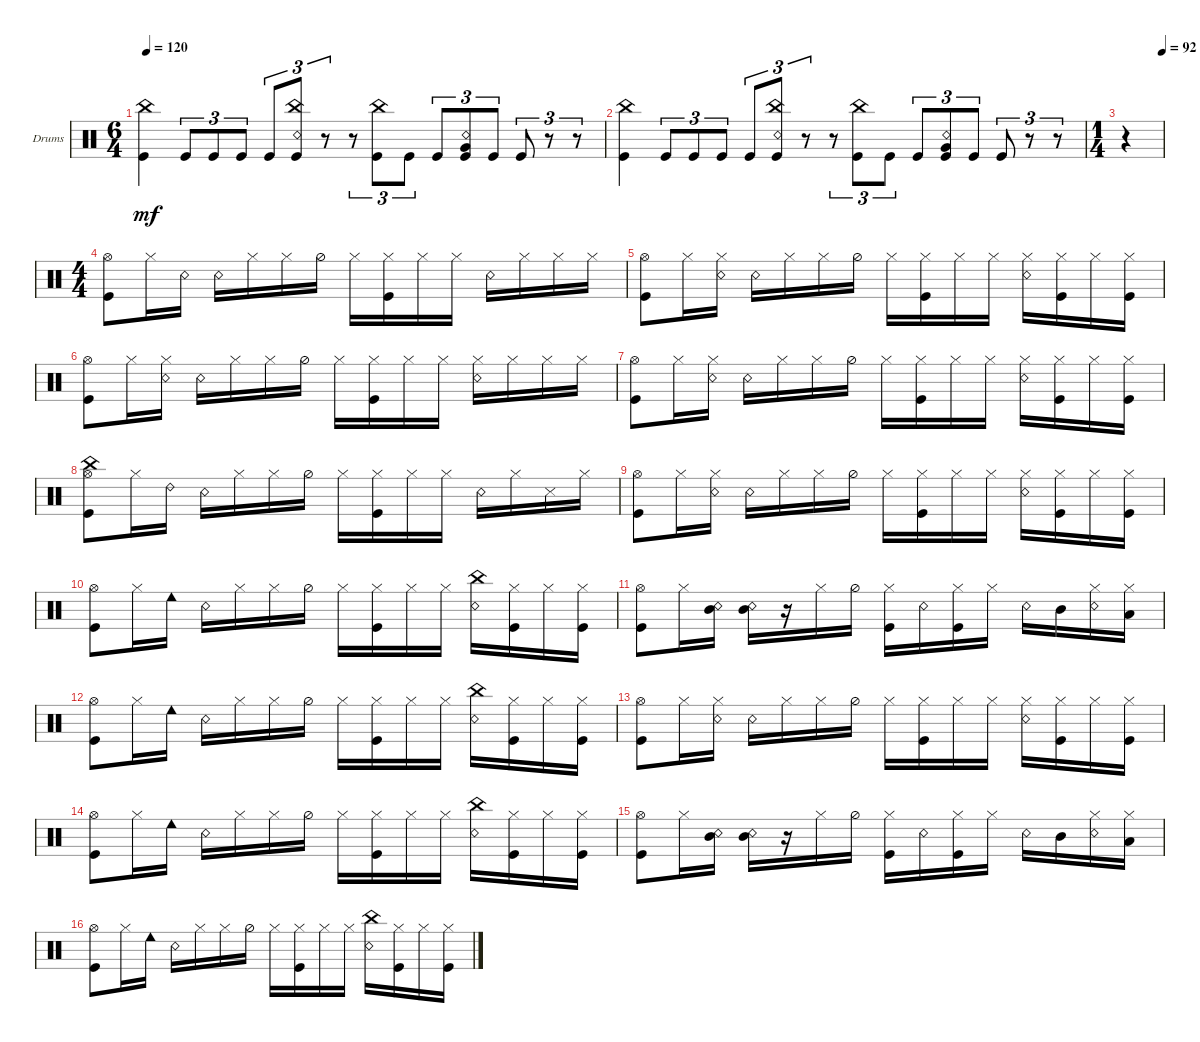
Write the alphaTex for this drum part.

\defaultSystemsLayout 4
\bracketExtendMode groupsimilarinstruments
\firstSystemTrackNameOrientation horizontal
\otherSystemsTrackNameOrientation horizontal
\track ("Drumkit" "Drums") {instrument percussion}
\staff {score}
\articulation defaults
\ts (6 4)
\tempo 120
\clef neutral
\ks c
("Kick (hit)" "China (hit)").4{dy mf} "Kick (hit)".8{tu (3 2)} "Kick (hit)".8{tu (3 2)} "Kick (hit)".8{tu (3 2)} "Kick (hit)".8{tu (3 2)} ("Kick (hit)" "Snare (rim shot)" "China (hit)").8{tu (3 2)} r.8{tu (3 2)} r.8{tu (3 2)} ("Kick (hit)" "China (hit)").8{tu (3 2)} "Kick (hit)".8{tu (3 2)} "Kick (hit)".8{tu (3 2)} ("Kick (hit)" "Snare (rim shot)" "Very Low Tom (hit)").8{tu (3 2)} "Kick (hit)".8{tu (3 2)} "Kick (hit)".8{tu (3 2)} r.8{tu (3 2)} r.8{tu (3 2)} |
("Kick (hit)" "China (hit)").4 "Kick (hit)".8{tu (3 2)} "Kick (hit)".8{tu (3 2)} "Kick (hit)".8{tu (3 2)} "Kick (hit)".8{tu (3 2)} ("Kick (hit)" "Snare (rim shot)" "China (hit)").8{tu (3 2)} r.8{tu (3 2)} r.8{tu (3 2)} ("Kick (hit)" "China (hit)").8{tu (3 2)} "Kick (hit)".8{tu (3 2)} "Kick (hit)".8{tu (3 2)} ("Kick (hit)" "Snare (rim shot)" "Very Low Tom (hit)").8{tu (3 2)} "Kick (hit)".8{tu (3 2)} "Kick (hit)".8{tu (3 2)} r.8{tu (3 2)} r.8{tu (3 2)} |
\ts (1 4)
\tempo (92 1)
r.4 |
\ts (4 4)
("Hi-Hat (open)" "Kick (hit)").8 "Hi-Hat (closed)".16 "Snare (rim shot)".16 "Snare (rim shot)".16 "Hi-Hat (closed)".16 "Hi-Hat (closed)".16 "Hi-Hat (half)".16 "Hi-Hat (closed)".16 ("Hi-Hat (closed)" "Kick (hit)").16 "Hi-Hat (closed)".16 "Hi-Hat (closed)".16 "Snare (rim shot)".16 "Hi-Hat (closed)".16 "Hi-Hat (closed)".16 "Hi-Hat (closed)".16 |
("Hi-Hat (open)" "Kick (hit)").8 "Hi-Hat (closed)".16 ("Hi-Hat (closed)" "Snare (rim shot)").16 "Snare (rim shot)".16 "Hi-Hat (closed)".16 "Hi-Hat (closed)".16 "Hi-Hat (half)".16 "Hi-Hat (closed)".16 ("Hi-Hat (closed)" "Kick (hit)").16 "Hi-Hat (closed)".16 "Hi-Hat (closed)".16 ("Hi-Hat (closed)" "Snare (rim shot)").16 ("Hi-Hat (closed)" "Kick (hit)").16 "Hi-Hat (closed)".16 ("Hi-Hat (closed)" "Kick (hit)").16 |
("Hi-Hat (open)" "Kick (hit)").8 "Hi-Hat (closed)".16 ("Hi-Hat (closed)" "Snare (rim shot)").16 "Snare (rim shot)".16 "Hi-Hat (closed)".16 "Hi-Hat (closed)".16 "Hi-Hat (half)".16 "Hi-Hat (closed)".16 ("Hi-Hat (closed)" "Kick (hit)").16 "Hi-Hat (closed)".16 "Hi-Hat (closed)".16 ("Hi-Hat (closed)" "Snare (rim shot)").16 "Hi-Hat (closed)".16 "Hi-Hat (closed)".16 "Hi-Hat (closed)".16 |
("Hi-Hat (open)" "Kick (hit)").8 "Hi-Hat (closed)".16 ("Hi-Hat (closed)" "Snare (rim shot)").16 "Snare (rim shot)".16 "Hi-Hat (closed)".16 "Hi-Hat (closed)".16 "Hi-Hat (half)".16 "Hi-Hat (closed)".16 ("Hi-Hat (closed)" "Kick (hit)").16 "Hi-Hat (closed)".16 "Hi-Hat (closed)".16 ("Hi-Hat (closed)" "Snare (rim shot)").16 ("Hi-Hat (closed)" "Kick (hit)").16 "Hi-Hat (closed)".16 ("Hi-Hat (closed)" "Kick (hit)").16 |
("Hi-Hat (open)" "Kick (hit)" "China (hit)").8 "Hi-Hat (closed)".16 "Ride (bell) 2".16 "Snare (rim shot)".16 "Hi-Hat (closed)".16 "Hi-Hat (closed)".16 "Hi-Hat (half)".16 "Hi-Hat (closed)".16 ("Hi-Hat (closed)" "Kick (hit)").16 "Hi-Hat (closed)".16 "Hi-Hat (closed)".16 "Snare (rim shot)".16 "Hi-Hat (closed)".16 "Snare (side stick) 3".16 "Hi-Hat (closed)".16 |
("Hi-Hat (open)" "Kick (hit)").8 "Hi-Hat (closed)".16 ("Hi-Hat (closed)" "Snare (rim shot)").16 "Snare (rim shot)".16 "Hi-Hat (closed)".16 "Hi-Hat (closed)".16 "Hi-Hat (half)".16 "Hi-Hat (closed)".16 ("Hi-Hat (closed)" "Kick (hit)").16 "Hi-Hat (closed)".16 "Hi-Hat (closed)".16 ("Hi-Hat (closed)" "Snare (rim shot)").16 ("Hi-Hat (closed)" "Kick (hit)").16 "Hi-Hat (closed)".16 ("Hi-Hat (closed)" "Kick (hit)").16 |
("Hi-Hat (open)" "Kick (hit)").8 "Hi-Hat (closed)".16 "Cowbell low (hit)".16 "Snare (rim shot)".16 "Hi-Hat (closed)".16 "Hi-Hat (closed)".16 "Hi-Hat (half)".16 "Hi-Hat (closed)".16 ("Hi-Hat (closed)" "Kick (hit)").16 "Hi-Hat (closed)".16 "Hi-Hat (closed)".16 ("Snare (rim shot)" "China (hit)").16 ("Hi-Hat (closed)" "Kick (hit)").16 "Hi-Hat (closed)".16 ("Hi-Hat (closed)" "Kick (hit)").16 |
("Hi-Hat (open)" "Kick (hit)").8 "Hi-Hat (closed)".16 ("Snare (rim shot)" "Mid Tom (hit)").16 ("Snare (rim shot)" "Mid Tom (hit)").16 r.16 "Hi-Hat (closed)".16 "Hi-Hat (half)".16 ("Hi-Hat (closed)" "Kick (hit)").16 "Snare (rim shot)".16 ("Hi-Hat (closed)" "Kick (hit)").16 "Hi-Hat (closed)".16 "Snare (rim shot)".16 "Mid Tom (hit)".16 ("Hi-Hat (closed)" "Snare (rim shot)").16 ("Hi-Hat (closed)" "Low Tom (hit)").16 |
("Hi-Hat (open)" "Kick (hit)").8 "Hi-Hat (closed)".16 "Cowbell low (hit)".16 "Snare (rim shot)".16 "Hi-Hat (closed)".16 "Hi-Hat (closed)".16 "Hi-Hat (half)".16 "Hi-Hat (closed)".16 ("Hi-Hat (closed)" "Kick (hit)").16 "Hi-Hat (closed)".16 "Hi-Hat (closed)".16 ("Snare (rim shot)" "China (hit)").16 ("Hi-Hat (closed)" "Kick (hit)").16 "Hi-Hat (closed)".16 ("Hi-Hat (closed)" "Kick (hit)").16 |
("Hi-Hat (open)" "Kick (hit)").8 "Hi-Hat (closed)".16 ("Hi-Hat (closed)" "Snare (rim shot)").16 "Snare (rim shot)".16 "Hi-Hat (closed)".16 "Hi-Hat (closed)".16 "Hi-Hat (half)".16 "Hi-Hat (closed)".16 ("Hi-Hat (closed)" "Kick (hit)").16 "Hi-Hat (closed)".16 "Hi-Hat (closed)".16 ("Hi-Hat (closed)" "Snare (rim shot)").16 ("Hi-Hat (closed)" "Kick (hit)").16 "Hi-Hat (closed)".16 ("Hi-Hat (closed)" "Kick (hit)").16 |
("Hi-Hat (open)" "Kick (hit)").8 "Hi-Hat (closed)".16 "Cowbell low (hit)".16 "Snare (rim shot)".16 "Hi-Hat (closed)".16 "Hi-Hat (closed)".16 "Hi-Hat (half)".16 "Hi-Hat (closed)".16 ("Hi-Hat (closed)" "Kick (hit)").16 "Hi-Hat (closed)".16 "Hi-Hat (closed)".16 ("Snare (rim shot)" "China (hit)").16 ("Hi-Hat (closed)" "Kick (hit)").16 "Hi-Hat (closed)".16 ("Hi-Hat (closed)" "Kick (hit)").16 |
("Hi-Hat (open)" "Kick (hit)").8 "Hi-Hat (closed)".16 ("Snare (rim shot)" "Mid Tom (hit)").16 ("Snare (rim shot)" "Mid Tom (hit)").16 r.16 "Hi-Hat (closed)".16 "Hi-Hat (half)".16 ("Hi-Hat (closed)" "Kick (hit)").16 "Snare (rim shot)".16 ("Hi-Hat (closed)" "Kick (hit)").16 "Hi-Hat (closed)".16 "Snare (rim shot)".16 "Mid Tom (hit)".16 ("Hi-Hat (closed)" "Snare (rim shot)").16 ("Hi-Hat (closed)" "Low Tom (hit)").16 |
("Hi-Hat (open)" "Kick (hit)").8 "Hi-Hat (closed)".16 "Cowbell low (hit)".16 "Snare (rim shot)".16 "Hi-Hat (closed)".16 "Hi-Hat (closed)".16 "Hi-Hat (half)".16 "Hi-Hat (closed)".16 ("Hi-Hat (closed)" "Kick (hit)").16 "Hi-Hat (closed)".16 "Hi-Hat (closed)".16 ("Snare (rim shot)" "China (hit)").16 ("Hi-Hat (closed)" "Kick (hit)").16 "Hi-Hat (closed)".16 ("Hi-Hat (closed)" "Kick (hit)").16
